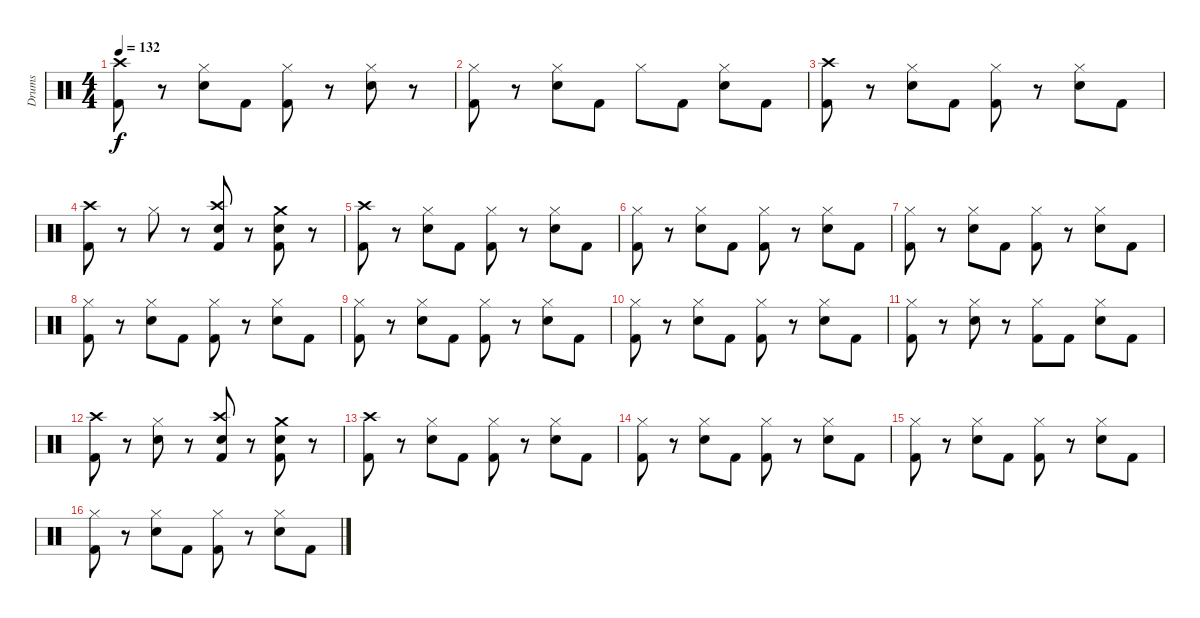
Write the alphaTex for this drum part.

\track ("Drums" "Drums") {instrument percussion}
\staff {score}
\articulation defaults
\ts (4 4)
\tempo 132
\clef neutral
\ks c
("Kick (hit) 2" "Crash high (hit)").8{dy f} r.8 ("Hi-Hat (closed)" "Electric Snare (hit)").8 "Kick (hit) 2".8 ("Hi-Hat (closed)" "Kick (hit) 2").8 r.8 ("Electric Snare (hit)" "Hi-Hat (closed)").8 r.8 |
("Hi-Hat (closed)" "Kick (hit) 2").8 r.8 ("Electric Snare (hit)" "Hi-Hat (closed)").8 "Kick (hit) 2".8 "Hi-Hat (closed)".8 "Kick (hit) 2".8 ("Electric Snare (hit)" "Hi-Hat (closed)").8 "Kick (hit) 2".8 |
("Kick (hit) 2" "Crash high (hit)").8 r.8 ("Hi-Hat (closed)" "Electric Snare (hit)").8 "Kick (hit) 2".8 ("Hi-Hat (closed)" "Kick (hit) 2").8 r.8 ("Electric Snare (hit)" "Hi-Hat (closed)").8 "Kick (hit) 2".8 |
("Crash high (hit)" "Kick (hit) 2").8 r.8 "Hi-Hat (closed)".8 r.8 ("Electric Snare (hit)" "Crash high (hit)" "Kick (hit) 2").8 r.8 ("Electric Snare (hit)" "Crash medium (hit)" "Kick (hit) 2").8 r.8 |
("Crash high (hit)" "Kick (hit) 2").8 r.8 ("Hi-Hat (closed)" "Electric Snare (hit)").8 "Kick (hit) 2".8 ("Hi-Hat (closed)" "Kick (hit) 2").8 r.8 ("Hi-Hat (closed)" "Electric Snare (hit)").8 "Kick (hit) 2".8 |
("Hi-Hat (closed)" "Kick (hit) 2").8 r.8 ("Electric Snare (hit)" "Hi-Hat (closed)").8 "Kick (hit) 2".8 ("Kick (hit) 2" "Hi-Hat (closed)").8 r.8 ("Electric Snare (hit)" "Hi-Hat (closed)").8 "Kick (hit) 2".8 |
("Hi-Hat (closed)" "Kick (hit) 2").8 r.8 ("Electric Snare (hit)" "Hi-Hat (closed)").8 "Kick (hit) 2".8 ("Kick (hit) 2" "Hi-Hat (closed)").8 r.8 ("Electric Snare (hit)" "Hi-Hat (closed)").8 "Kick (hit) 2".8 |
("Hi-Hat (closed)" "Kick (hit) 2").8 r.8 ("Electric Snare (hit)" "Hi-Hat (closed)").8 "Kick (hit) 2".8 ("Kick (hit) 2" "Hi-Hat (closed)").8 r.8 ("Electric Snare (hit)" "Hi-Hat (closed)").8 "Kick (hit) 2".8 |
("Hi-Hat (closed)" "Kick (hit) 2").8 r.8 ("Electric Snare (hit)" "Hi-Hat (closed)").8 "Kick (hit) 2".8 ("Kick (hit) 2" "Hi-Hat (closed)").8 r.8 ("Electric Snare (hit)" "Hi-Hat (closed)").8 "Kick (hit) 2".8 |
("Hi-Hat (closed)" "Kick (hit) 2").8 r.8 ("Hi-Hat (closed)" "Electric Snare (hit)").8 "Kick (hit) 2".8 ("Hi-Hat (closed)" "Kick (hit) 2").8 r.8 ("Hi-Hat (closed)" "Electric Snare (hit)").8 "Kick (hit) 2".8 |
("Hi-Hat (closed)" "Kick (hit) 2").8 r.8 ("Hi-Hat (closed)" "Electric Snare (hit)").8 r.8 ("Hi-Hat (closed)" "Kick (hit) 2").8 "Kick (hit) 2".8 ("Hi-Hat (closed)" "Electric Snare (hit)").8 "Kick (hit) 2".8 |
("Kick (hit) 2" "Crash high (hit)").8 r.8 ("Hi-Hat (closed)" "Electric Snare (hit)").8 r.8 ("Electric Snare (hit)" "Kick (hit) 2" "Crash high (hit)").8 r.8 ("Electric Snare (hit)" "Kick (hit) 2" "Crash medium (hit)").8 r.8 |
("Crash high (hit)" "Kick (hit) 2").8 r.8 ("Hi-Hat (closed)" "Electric Snare (hit)").8 "Kick (hit) 2".8 ("Hi-Hat (closed)" "Kick (hit) 2").8 r.8 ("Hi-Hat (closed)" "Electric Snare (hit)").8 "Kick (hit) 2".8 |
("Hi-Hat (closed)" "Kick (hit) 2").8 r.8 ("Electric Snare (hit)" "Hi-Hat (closed)").8 "Kick (hit) 2".8 ("Kick (hit) 2" "Hi-Hat (closed)").8 r.8 ("Electric Snare (hit)" "Hi-Hat (closed)").8 "Kick (hit) 2".8 |
("Hi-Hat (closed)" "Kick (hit) 2").8 r.8 ("Electric Snare (hit)" "Hi-Hat (closed)").8 "Kick (hit) 2".8 ("Kick (hit) 2" "Hi-Hat (closed)").8 r.8 ("Electric Snare (hit)" "Hi-Hat (closed)").8 "Kick (hit) 2".8 |
("Hi-Hat (closed)" "Kick (hit) 2").8 r.8 ("Electric Snare (hit)" "Hi-Hat (closed)").8 "Kick (hit) 2".8 ("Kick (hit) 2" "Hi-Hat (closed)").8 r.8 ("Electric Snare (hit)" "Hi-Hat (closed)").8 "Kick (hit) 2".8
